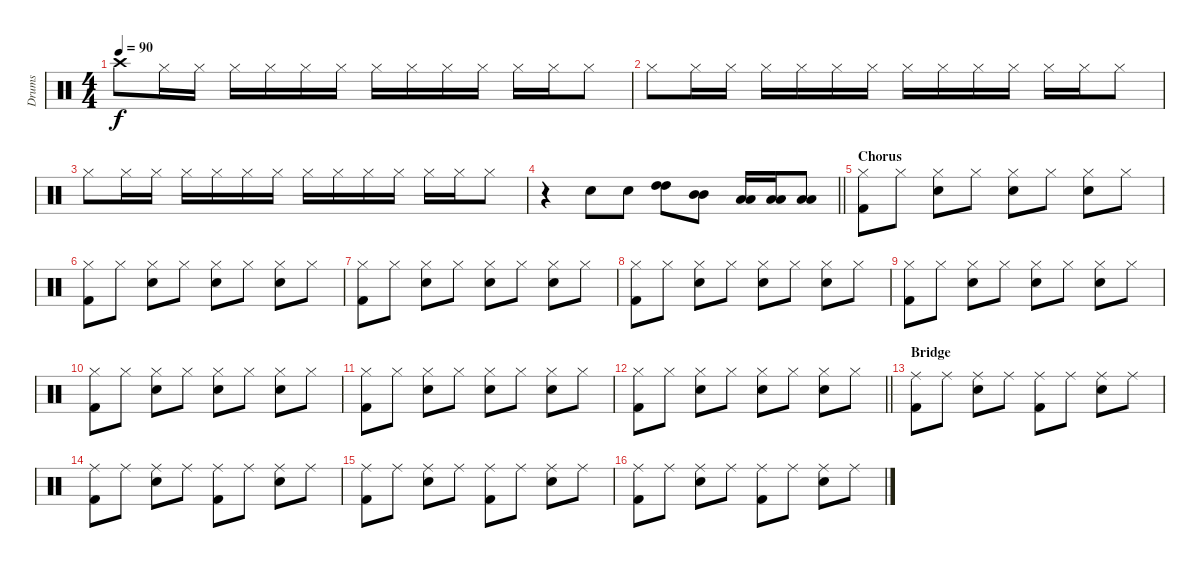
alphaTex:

\track ("Drums" "Drums") {instrument percussion}
\staff {score}
\articulation defaults
\ts (4 4)
\tempo 90
\clef neutral
\ks c "Crash high (hit)".8{dy f} "Hi-Hat (closed)".16 "Hi-Hat (closed)".16 "Hi-Hat (closed)".16 "Hi-Hat (closed)".16 "Hi-Hat (closed)".16 "Hi-Hat (closed)".16 "Hi-Hat (closed)".16 "Hi-Hat (closed)".16 "Hi-Hat (closed)".16 "Hi-Hat (closed)".16 "Hi-Hat (closed)".16 "Hi-Hat (closed)".16 "Hi-Hat (closed)".8
|
"Hi-Hat (closed)".8 "Hi-Hat (closed)".16 "Hi-Hat (closed)".16 "Hi-Hat (closed)".16 "Hi-Hat (closed)".16 "Hi-Hat (closed)".16 "Hi-Hat (closed)".16 "Hi-Hat (closed)".16 "Hi-Hat (closed)".16 "Hi-Hat (closed)".16 "Hi-Hat (closed)".16 "Hi-Hat (closed)".16 "Hi-Hat (closed)".16 "Hi-Hat (closed)".8 |
"Hi-Hat (closed)".8 "Hi-Hat (closed)".16 "Hi-Hat (closed)".16 "Hi-Hat (closed)".16 "Hi-Hat (closed)".16 "Hi-Hat (closed)".16 "Hi-Hat (closed)".16 "Hi-Hat (closed)".16 "Hi-Hat (closed)".16 "Hi-Hat (closed)".16 "Hi-Hat (closed)".16 "Hi-Hat (closed)".16 "Hi-Hat (closed)".16 "Hi-Hat (closed)".8 |
\barLineRight lightlight
r.4 "Snare (hit) 2".8 "Snare (hit) 2".8 ("High Tom (hit)" "High Tom (hit)").8 ("Mid Tom (hit)" "Mid Tom (hit)").8 ("Low Tom (hit)" "Low Tom (hit)").16 ("Low Tom (hit)" "Low Tom (hit)").16 ("Low Tom (hit)" "Low Tom (hit)").8 |
\section ("" "Chorus")
("Hi-Hat (closed)" "Kick (hit) 2").8 "Hi-Hat (closed)".8 ("Hi-Hat (closed)" "Snare (hit) 2").8 "Hi-Hat (closed)".8 ("Hi-Hat (closed)" "Snare (hit) 2").8 "Hi-Hat (closed)".8 ("Hi-Hat (closed)" "Snare (hit) 2").8 "Hi-Hat (closed)".8 |
("Hi-Hat (closed)" "Kick (hit) 2").8 "Hi-Hat (closed)".8 ("Hi-Hat (closed)" "Snare (hit) 2").8 "Hi-Hat (closed)".8 ("Hi-Hat (closed)" "Snare (hit) 2").8 "Hi-Hat (closed)".8 ("Hi-Hat (closed)" "Snare (hit) 2").8 "Hi-Hat (closed)".8 |
("Hi-Hat (closed)" "Kick (hit) 2").8 "Hi-Hat (closed)".8 ("Hi-Hat (closed)" "Snare (hit) 2").8 "Hi-Hat (closed)".8 ("Hi-Hat (closed)" "Snare (hit) 2").8 "Hi-Hat (closed)".8 ("Hi-Hat (closed)" "Snare (hit) 2").8 "Hi-Hat (closed)".8 |
("Hi-Hat (closed)" "Kick (hit) 2").8 "Hi-Hat (closed)".8 ("Hi-Hat (closed)" "Snare (hit) 2").8 "Hi-Hat (closed)".8 ("Hi-Hat (closed)" "Snare (hit) 2").8 "Hi-Hat (closed)".8 ("Hi-Hat (closed)" "Snare (hit) 2").8 "Hi-Hat (closed)".8 |
("Hi-Hat (closed)" "Kick (hit) 2").8 "Hi-Hat (closed)".8 ("Hi-Hat (closed)" "Snare (hit) 2").8 "Hi-Hat (closed)".8 ("Hi-Hat (closed)" "Snare (hit) 2").8 "Hi-Hat (closed)".8 ("Hi-Hat (closed)" "Snare (hit) 2").8 "Hi-Hat (closed)".8 |
("Hi-Hat (closed)" "Kick (hit) 2").8 "Hi-Hat (closed)".8 ("Hi-Hat (closed)" "Snare (hit) 2").8 "Hi-Hat (closed)".8 ("Hi-Hat (closed)" "Snare (hit) 2").8 "Hi-Hat (closed)".8 ("Hi-Hat (closed)" "Snare (hit) 2").8 "Hi-Hat (closed)".8 |
("Hi-Hat (closed)" "Kick (hit) 2").8 "Hi-Hat (closed)".8 ("Hi-Hat (closed)" "Snare (hit) 2").8 "Hi-Hat (closed)".8 ("Hi-Hat (closed)" "Snare (hit) 2").8 "Hi-Hat (closed)".8 ("Hi-Hat (closed)" "Snare (hit) 2").8 "Hi-Hat (closed)".8 |
\barLineRight lightlight
("Hi-Hat (closed)" "Kick (hit) 2").8 "Hi-Hat (closed)".8 ("Hi-Hat (closed)" "Snare (hit) 2").8 "Hi-Hat (closed)".8 ("Hi-Hat (closed)" "Snare (hit) 2").8 "Hi-Hat (closed)".8 ("Hi-Hat (closed)" "Snare (hit) 2").8 "Hi-Hat (closed)".8 |
\section ("" "Bridge")
("Ride (middle)" "Kick (hit) 2").8 "Ride (middle)".8 ("Ride (middle)" "Snare (hit) 2").8 "Ride (middle)".8 ("Ride (middle)" "Kick (hit) 2").8 "Ride (middle)".8 ("Ride (middle)" "Snare (hit) 2").8 "Ride (middle)".8 |
("Ride (middle)" "Kick (hit) 2").8 "Ride (middle)".8 ("Ride (middle)" "Snare (hit) 2").8 "Ride (middle)".8 ("Ride (middle)" "Kick (hit) 2").8 "Ride (middle)".8 ("Ride (middle)" "Snare (hit) 2").8 "Ride (middle)".8 |
("Ride (middle)" "Kick (hit) 2").8 "Ride (middle)".8 ("Ride (middle)" "Snare (hit) 2").8 "Ride (middle)".8 ("Ride (middle)" "Kick (hit) 2").8 "Ride (middle)".8 ("Ride (middle)" "Snare (hit) 2").8 "Ride (middle)".8 |
("Ride (middle)" "Kick (hit) 2").8 "Ride (middle)".8 ("Ride (middle)" "Snare (hit) 2").8 "Ride (middle)".8 ("Ride (middle)" "Kick (hit) 2").8 "Ride (middle)".8 ("Ride (middle)" "Snare (hit) 2").8 "Ride (middle)".8
